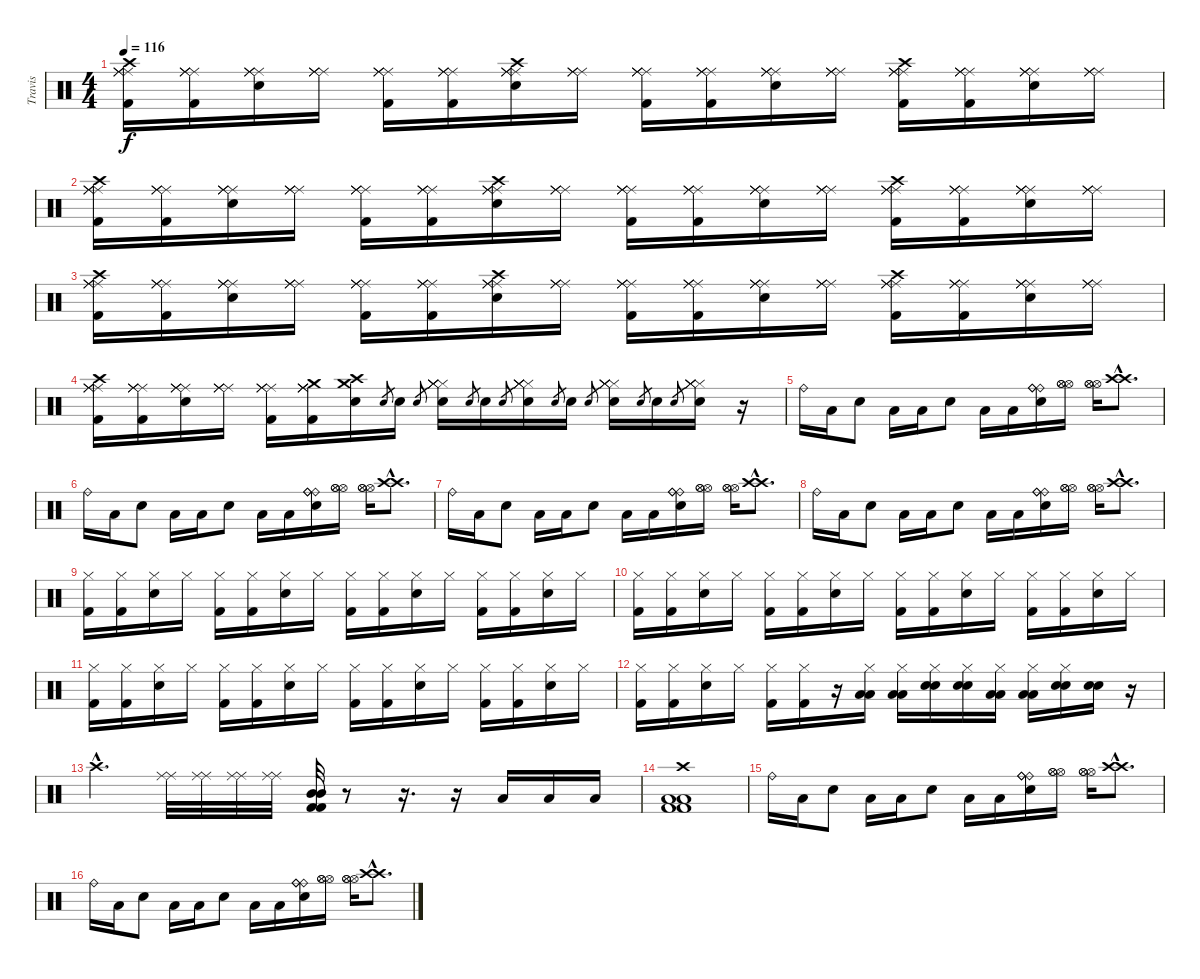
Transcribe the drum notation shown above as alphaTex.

\track ("Travis" "Travis") {instrument percussion}
\staff {score}
\articulation defaults
\ts (4 4)
\tempo 116
\clef neutral
\ks c
("Ride (middle)" "Crash high (hit)" "Kick (hit) 2" "Ride (middle)" "Ride (middle)" "Ride (middle)").16{dy f} ("Ride (middle)" "Kick (hit) 2" "Ride (middle)" "Ride (middle)" "Ride (middle)").16 ("Ride (middle)" "Snare (hit) 2" "Ride (middle)" "Ride (middle)" "Ride (middle)").16 ("Ride (middle)" "Ride (middle)" "Ride (middle)" "Ride (middle)").16 ("Ride (middle)" "Kick (hit) 2" "Ride (middle)" "Ride (middle)" "Ride (middle)").16 ("Ride (middle)" "Kick (hit) 2" "Ride (middle)" "Ride (middle)" "Ride (middle)").16 ("Ride (middle)" "Crash high (hit)" "Snare (hit) 2" "Ride (middle)" "Ride (middle)" "Ride (middle)").16 ("Ride (middle)" "Ride (middle)" "Ride (middle)" "Ride (middle)").16 ("Ride (middle)" "Kick (hit) 2" "Ride (middle)" "Ride (middle)" "Ride (middle)").16 ("Ride (middle)" "Kick (hit) 2" "Ride (middle)" "Ride (middle)" "Ride (middle)").16 ("Ride (middle)" "Snare (hit) 2" "Ride (middle)" "Ride (middle)" "Ride (middle)").16 ("Ride (middle)" "Ride (middle)" "Ride (middle)" "Ride (middle)").16 ("Ride (middle)" "Crash high (hit)" "Kick (hit) 2" "Ride (middle)" "Ride (middle)" "Ride (middle)").16 ("Ride (middle)" "Kick (hit) 2" "Ride (middle)" "Ride (middle)" "Ride (middle)").16 ("Ride (middle)" "Snare (hit) 2" "Ride (middle)" "Ride (middle)" "Ride (middle)").16 ("Ride (middle)" "Ride (middle)" "Ride (middle)" "Ride (middle)").16 |
("Ride (middle)" "Crash high (hit)" "Kick (hit) 2" "Ride (middle)" "Ride (middle)" "Ride (middle)").16 ("Ride (middle)" "Kick (hit) 2" "Ride (middle)" "Ride (middle)" "Ride (middle)").16 ("Ride (middle)" "Snare (hit) 2" "Ride (middle)" "Ride (middle)" "Ride (middle)").16 ("Ride (middle)" "Ride (middle)" "Ride (middle)" "Ride (middle)").16 ("Ride (middle)" "Kick (hit) 2" "Ride (middle)" "Ride (middle)" "Ride (middle)").16 ("Ride (middle)" "Kick (hit) 2" "Ride (middle)" "Ride (middle)" "Ride (middle)").16 ("Ride (middle)" "Crash high (hit)" "Snare (hit) 2" "Ride (middle)" "Ride (middle)" "Ride (middle)").16 ("Ride (middle)" "Ride (middle)" "Ride (middle)" "Ride (middle)").16 ("Ride (middle)" "Kick (hit) 2" "Ride (middle)" "Ride (middle)" "Ride (middle)").16 ("Ride (middle)" "Kick (hit) 2" "Ride (middle)" "Ride (middle)" "Ride (middle)").16 ("Ride (middle)" "Snare (hit) 2" "Ride (middle)" "Ride (middle)" "Ride (middle)").16 ("Ride (middle)" "Ride (middle)" "Ride (middle)" "Ride (middle)").16 ("Ride (middle)" "Crash high (hit)" "Kick (hit) 2" "Ride (middle)" "Ride (middle)" "Ride (middle)").16 ("Ride (middle)" "Kick (hit) 2" "Ride (middle)" "Ride (middle)" "Ride (middle)").16 ("Ride (middle)" "Snare (hit) 2" "Ride (middle)" "Ride (middle)" "Ride (middle)").16 ("Ride (middle)" "Ride (middle)" "Ride (middle)" "Ride (middle)").16 |
("Ride (middle)" "Crash high (hit)" "Kick (hit) 2" "Ride (middle)" "Ride (middle)" "Ride (middle)").16 ("Ride (middle)" "Kick (hit) 2" "Ride (middle)" "Ride (middle)" "Ride (middle)").16 ("Ride (middle)" "Snare (hit) 2" "Ride (middle)" "Ride (middle)" "Ride (middle)").16 ("Ride (middle)" "Ride (middle)" "Ride (middle)" "Ride (middle)").16 ("Ride (middle)" "Kick (hit) 2" "Ride (middle)" "Ride (middle)" "Ride (middle)").16 ("Ride (middle)" "Kick (hit) 2" "Ride (middle)" "Ride (middle)" "Ride (middle)").16 ("Ride (middle)" "Crash high (hit)" "Snare (hit) 2" "Ride (middle)" "Ride (middle)" "Ride (middle)").16 ("Ride (middle)" "Ride (middle)" "Ride (middle)" "Ride (middle)").16 ("Ride (middle)" "Kick (hit) 2" "Ride (middle)" "Ride (middle)" "Ride (middle)").16 ("Ride (middle)" "Kick (hit) 2" "Ride (middle)" "Ride (middle)" "Ride (middle)").16 ("Ride (middle)" "Snare (hit) 2" "Ride (middle)" "Ride (middle)" "Ride (middle)").16 ("Ride (middle)" "Ride (middle)" "Ride (middle)" "Ride (middle)").16 ("Ride (middle)" "Crash high (hit)" "Kick (hit) 2" "Ride (middle)" "Ride (middle)" "Ride (middle)").16 ("Ride (middle)" "Kick (hit) 2" "Ride (middle)" "Ride (middle)" "Ride (middle)").16 ("Ride (middle)" "Snare (hit) 2" "Ride (middle)" "Ride (middle)" "Ride (middle)").16 ("Ride (middle)" "Ride (middle)" "Ride (middle)" "Ride (middle)").16 |
("Ride (middle)" "Crash high (hit)" "Kick (hit) 2" "Ride (middle)" "Ride (middle)" "Ride (middle)").16 ("Ride (middle)" "Kick (hit) 2" "Ride (middle)" "Ride (middle)" "Ride (middle)").16 ("Ride (middle)" "Snare (hit) 2" "Ride (middle)" "Ride (middle)" "Ride (middle)").16 ("Ride (middle)" "Ride (middle)" "Ride (middle)" "Ride (middle)").16 ("Ride (middle)" "Kick (hit) 2" "Ride (middle)" "Ride (middle)" "Ride (middle)").16 ("Ride (middle)" "Crash medium (hit)" "Kick (hit) 2" "Ride (middle)" "Ride (middle)" "Ride (middle)").16 ("Crash medium (hit)" "Crash high (hit)" "Electric Snare (hit)").16 "Electric Snare (hit)".8{gr} "Electric Snare (hit)".16 "Electric Snare (hit)".8{gr} ("Hi-Hat (closed)" "Hi-Hat (closed)" "Hi-Hat (closed)" "Hi-Hat (closed)" "Hi-Hat (closed)" "Electric Snare (hit)").16 "Electric Snare (hit)".8{gr} "Electric Snare (hit)".16 "Electric Snare (hit)".8{gr} ("Hi-Hat (closed)" "Hi-Hat (closed)" "Hi-Hat (closed)" "Hi-Hat (closed)" "Hi-Hat (closed)" "Electric Snare (hit)").16 "Electric Snare (hit)".8{gr} "Electric Snare (hit)".16 "Electric Snare (hit)".8{gr} ("Hi-Hat (closed)" "Hi-Hat (closed)" "Hi-Hat (closed)" "Hi-Hat (closed)" "Hi-Hat (closed)" "Electric Snare (hit)").16 "Electric Snare (hit)".8{gr} "Electric Snare (hit)".16 "Electric Snare (hit)".8{gr} ("Hi-Hat (closed)" "Hi-Hat (closed)" "Hi-Hat (closed)" "Hi-Hat (closed)" "Hi-Hat (closed)" "Electric Snare (hit)").16 r.16 |
"Ride (bell)".16 "Low Floor Tom (hit)".16 "Snare (hit) 2".8 "Low Floor Tom (hit)".16 "Low Floor Tom (hit)".16 "Snare (hit) 2".8 "Low Floor Tom (hit)".16 "Low Floor Tom (hit)".16 ("Snare (hit) 2" "Ride (bell)" "Ride (bell)" "Ride (bell)").16 ("Hi-Hat (open)" "Hi-Hat (open)" "Hi-Hat (open)").16 ("Hi-Hat (open)" "Hi-Hat (open)" "Hi-Hat (open)").16 ("Crash high (hit)"{hac} "Crash high (hit)"{hac}).8{d} |
"Ride (bell)".16 "Low Floor Tom (hit)".16 "Snare (hit) 2".8 "Low Floor Tom (hit)".16 "Low Floor Tom (hit)".16 "Snare (hit) 2".8 "Low Floor Tom (hit)".16 "Low Floor Tom (hit)".16 ("Snare (hit) 2" "Ride (bell)" "Ride (bell)" "Ride (bell)").16 ("Hi-Hat (open)" "Hi-Hat (open)" "Hi-Hat (open)").16 ("Hi-Hat (open)" "Hi-Hat (open)" "Hi-Hat (open)").16 ("Crash high (hit)"{hac} "Crash high (hit)"{hac}).8{d} |
"Ride (bell)".16 "Low Floor Tom (hit)".16 "Snare (hit) 2".8 "Low Floor Tom (hit)".16 "Low Floor Tom (hit)".16 "Snare (hit) 2".8 "Low Floor Tom (hit)".16 "Low Floor Tom (hit)".16 ("Snare (hit) 2" "Ride (bell)" "Ride (bell)" "Ride (bell)").16 ("Hi-Hat (open)" "Hi-Hat (open)" "Hi-Hat (open)").16 ("Hi-Hat (open)" "Hi-Hat (open)" "Hi-Hat (open)").16 ("Crash high (hit)"{hac} "Crash high (hit)"{hac}).8{d} |
"Ride (bell)".16 "Low Floor Tom (hit)".16 "Snare (hit) 2".8 "Low Floor Tom (hit)".16 "Low Floor Tom (hit)".16 "Snare (hit) 2".8 "Low Floor Tom (hit)".16 "Low Floor Tom (hit)".16 ("Snare (hit) 2" "Ride (bell)" "Ride (bell)" "Ride (bell)").16 ("Hi-Hat (open)" "Hi-Hat (open)" "Hi-Hat (open)").16 ("Hi-Hat (open)" "Hi-Hat (open)" "Hi-Hat (open)").16 ("Crash high (hit)"{hac} "Crash high (hit)"{hac}).8{d} |
("Hi-Hat (closed)" "Kick (hit) 2").16 ("Hi-Hat (closed)" "Kick (hit) 2").16 ("Hi-Hat (closed)" "Snare (hit) 2").16 "Hi-Hat (closed)".16 ("Hi-Hat (closed)" "Kick (hit) 2").16 ("Hi-Hat (closed)" "Kick (hit) 2").16 ("Hi-Hat (closed)" "Snare (hit) 2").16 "Hi-Hat (closed)".16 ("Hi-Hat (closed)" "Kick (hit) 2").16 ("Hi-Hat (closed)" "Kick (hit) 2").16 ("Hi-Hat (closed)" "Snare (hit) 2").16 "Hi-Hat (closed)".16 ("Hi-Hat (closed)" "Kick (hit) 2").16 ("Hi-Hat (closed)" "Kick (hit) 2").16 ("Hi-Hat (closed)" "Snare (hit) 2").16 "Hi-Hat (closed)".16 |
("Hi-Hat (closed)" "Kick (hit) 2").16 ("Hi-Hat (closed)" "Kick (hit) 2").16 ("Hi-Hat (closed)" "Snare (hit) 2").16 "Hi-Hat (closed)".16 ("Hi-Hat (closed)" "Kick (hit) 2").16 ("Hi-Hat (closed)" "Kick (hit) 2").16 ("Hi-Hat (closed)" "Snare (hit) 2").16 "Hi-Hat (closed)".16 ("Hi-Hat (closed)" "Kick (hit) 2").16 ("Hi-Hat (closed)" "Kick (hit) 2").16 ("Hi-Hat (closed)" "Snare (hit) 2").16 "Hi-Hat (closed)".16 ("Hi-Hat (closed)" "Kick (hit) 2").16 ("Hi-Hat (closed)" "Kick (hit) 2").16 ("Hi-Hat (closed)" "Snare (hit) 2").16 "Hi-Hat (closed)".16 |
("Hi-Hat (closed)" "Kick (hit) 2").16 ("Hi-Hat (closed)" "Kick (hit) 2").16 ("Hi-Hat (closed)" "Snare (hit) 2").16 "Hi-Hat (closed)".16 ("Hi-Hat (closed)" "Kick (hit) 2").16 ("Hi-Hat (closed)" "Kick (hit) 2").16 ("Hi-Hat (closed)" "Snare (hit) 2").16 "Hi-Hat (closed)".16 ("Hi-Hat (closed)" "Kick (hit) 2").16 ("Hi-Hat (closed)" "Kick (hit) 2").16 ("Hi-Hat (closed)" "Snare (hit) 2").16 "Hi-Hat (closed)".16 ("Hi-Hat (closed)" "Kick (hit) 2").16 ("Hi-Hat (closed)" "Kick (hit) 2").16 ("Hi-Hat (closed)" "Snare (hit) 2").16 "Hi-Hat (closed)".16 |
("Hi-Hat (closed)" "Kick (hit) 2").16 ("Hi-Hat (closed)" "Kick (hit) 2").16 ("Hi-Hat (closed)" "Snare (hit) 2").16 "Hi-Hat (closed)".16 ("Hi-Hat (closed)" "Kick (hit) 2").16 ("Hi-Hat (closed)" "Kick (hit) 2").16 r.16 ("Hi-Hat (closed)" "Low Floor Tom (hit)" "Low Floor Tom (hit)").16 ("Hi-Hat (closed)" "Low Floor Tom (hit)" "Low Floor Tom (hit)").16 ("Hi-Hat (closed)" "Snare (hit) 2" "Snare (hit) 2").16 ("Hi-Hat (closed)" "Snare (hit) 2" "Snare (hit) 2").16 ("Hi-Hat (closed)" "Low Floor Tom (hit)" "Low Floor Tom (hit)").16 ("Hi-Hat (closed)" "Low Floor Tom (hit)" "Low Floor Tom (hit)").16 ("Hi-Hat (closed)" "Snare (hit) 2" "Snare (hit) 2").16 ("Snare (hit) 2" "Snare (hit) 2").16 r.16 |
"Crash high (hit)"{hac}.4{d} ("Ride (middle)" "Ride (middle)").32 ("Ride (middle)" "Ride (middle)").32 ("Ride (middle)" "Ride (middle)").32 ("Ride (middle)" "Ride (middle)").32 ("Mid Tom (hit)" "Mid Tom (hit)" "Kick (hit) 2" "Kick (hit) 2").32 r.8 r.16{d} r.16 "Low Floor Tom (hit)".16 "Low Floor Tom (hit)".16 "Low Floor Tom (hit)".16 |
("Kick (hit) 2" "Kick (hit) 2" "Low Floor Tom (hit)" "Low Floor Tom (hit)" "Crash high (hit)").1 |
"Ride (bell)".16 "Low Floor Tom (hit)".16 "Snare (hit) 2".8 "Low Floor Tom (hit)".16 "Low Floor Tom (hit)".16 "Snare (hit) 2".8 "Low Floor Tom (hit)".16 "Low Floor Tom (hit)".16 ("Snare (hit) 2" "Ride (bell)" "Ride (bell)" "Ride (bell)").16 ("Hi-Hat (open)" "Hi-Hat (open)" "Hi-Hat (open)").16 ("Hi-Hat (open)" "Hi-Hat (open)" "Hi-Hat (open)").16 ("Crash high (hit)"{hac} "Crash high (hit)"{hac}).8{d} |
"Ride (bell)".16 "Low Floor Tom (hit)".16 "Snare (hit) 2".8 "Low Floor Tom (hit)".16 "Low Floor Tom (hit)".16 "Snare (hit) 2".8 "Low Floor Tom (hit)".16 "Low Floor Tom (hit)".16 ("Snare (hit) 2" "Ride (bell)" "Ride (bell)" "Ride (bell)").16 ("Hi-Hat (open)" "Hi-Hat (open)" "Hi-Hat (open)").16 ("Hi-Hat (open)" "Hi-Hat (open)" "Hi-Hat (open)").16 ("Crash high (hit)"{hac} "Crash high (hit)"{hac}).8{d}
